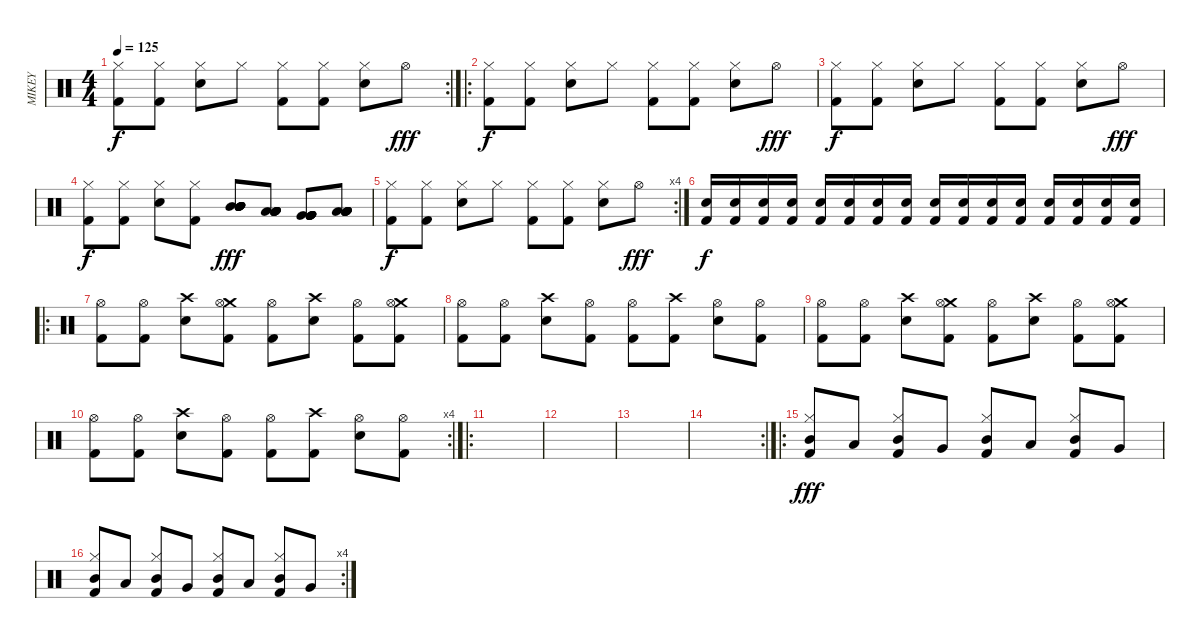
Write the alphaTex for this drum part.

\track ("MIKEY" "MIKEY") {instrument percussion}
\staff {score}
\articulation defaults
\rc 2
\ts (4 4)
\tempo 125
\clef neutral
\ks c
("Kick (hit) 2" "Hi-Hat (closed)").8{dy f} ("Kick (hit) 2" "Hi-Hat (closed)").8 ("Snare (hit) 2" "Hi-Hat (closed)").8 "Hi-Hat (closed)".8 ("Kick (hit) 2" "Hi-Hat (closed)").8 ("Kick (hit) 2" "Hi-Hat (closed)").8 ("Snare (hit) 2" "Hi-Hat (closed)").8 "Hi-Hat (open)".8{dy fff} |
\ro
("Kick (hit) 2" "Hi-Hat (closed)").8{dy f} ("Kick (hit) 2" "Hi-Hat (closed)").8 ("Snare (hit) 2" "Hi-Hat (closed)").8 "Hi-Hat (closed)".8 ("Kick (hit) 2" "Hi-Hat (closed)").8 ("Kick (hit) 2" "Hi-Hat (closed)").8 ("Snare (hit) 2" "Hi-Hat (closed)").8 "Hi-Hat (open)".8{dy fff} |
("Kick (hit) 2" "Hi-Hat (closed)").8{dy f} ("Kick (hit) 2" "Hi-Hat (closed)").8 ("Snare (hit) 2" "Hi-Hat (closed)").8 "Hi-Hat (closed)".8 ("Kick (hit) 2" "Hi-Hat (closed)").8 ("Kick (hit) 2" "Hi-Hat (closed)").8 ("Snare (hit) 2" "Hi-Hat (closed)").8 "Hi-Hat (open)".8{dy fff} |
("Kick (hit) 2" "Hi-Hat (closed)").8{dy f} ("Kick (hit) 2" "Hi-Hat (closed)").8 ("Snare (hit) 2" "Hi-Hat (closed)").8 ("Kick (hit) 2" "Hi-Hat (closed)").8 ("Mid Tom (hit)" "Mid Tom (hit)" "Mid Tom (hit)" "Mid Tom (hit)" "Mid Tom (hit)" "Mid Tom (hit)").8{dy fff} ("Low Tom (hit)" "Low Tom (hit)" "Low Tom (hit)" "Low Tom (hit)" "Low Tom (hit)" "Low Tom (hit)").8 ("Very Low Tom (hit)" "Very Low Tom (hit)" "Very Low Tom (hit)" "Very Low Tom (hit)" "Very Low Tom (hit)" "Very Low Tom (hit)").8 ("Low Floor Tom (hit)" "Low Floor Tom (hit)" "Low Floor Tom (hit)" "Low Floor Tom (hit)" "Low Floor Tom (hit)" "Low Floor Tom (hit)").8 |
\rc 4
("Kick (hit) 2" "Hi-Hat (closed)").8{dy f} ("Kick (hit) 2" "Hi-Hat (closed)").8 ("Snare (hit) 2" "Hi-Hat (closed)").8 "Hi-Hat (closed)".8 ("Kick (hit) 2" "Hi-Hat (closed)").8 ("Kick (hit) 2" "Hi-Hat (closed)").8 ("Snare (hit) 2" "Hi-Hat (closed)").8 "Hi-Hat (open)".8{dy fff} |
("Kick (hit) 2" "Electric Snare (hit)").16{dy f} ("Kick (hit) 2" "Electric Snare (hit)").16 ("Kick (hit) 2" "Electric Snare (hit)").16 ("Kick (hit) 2" "Electric Snare (hit)").16 ("Kick (hit) 2" "Electric Snare (hit)").16 ("Kick (hit) 2" "Electric Snare (hit)").16 ("Kick (hit) 2" "Electric Snare (hit)").16 ("Kick (hit) 2" "Electric Snare (hit)").16 ("Kick (hit) 2" "Electric Snare (hit)").16 ("Kick (hit) 2" "Electric Snare (hit)").16 ("Kick (hit) 2" "Electric Snare (hit)").16 ("Kick (hit) 2" "Electric Snare (hit)").16 ("Kick (hit) 2" "Electric Snare (hit)").16 ("Kick (hit) 2" "Electric Snare (hit)").16 ("Kick (hit) 2" "Electric Snare (hit)").16 ("Kick (hit) 2" "Electric Snare (hit)").16 |
\ro
("Hi-Hat (open)" "Kick (hit) 2").8 ("Hi-Hat (open)" "Kick (hit) 2").8 ("Crash high (hit)" "Electric Snare (hit)").8 ("Crash medium (hit)" "Hi-Hat (open)" "Kick (hit) 2").8 ("Hi-Hat (open)" "Kick (hit) 2").8 ("Crash high (hit)" "Electric Snare (hit)").8 ("Hi-Hat (open)" "Kick (hit) 2").8 ("Crash medium (hit)" "Hi-Hat (open)" "Kick (hit) 2").8 |
("Hi-Hat (open)" "Kick (hit) 2").8 ("Hi-Hat (open)" "Kick (hit) 2").8 ("Crash high (hit)" "Electric Snare (hit)").8 ("Hi-Hat (open)" "Kick (hit) 2").8 ("Hi-Hat (open)" "Kick (hit) 2").8 ("Crash high (hit)" "Kick (hit) 2").8 ("Hi-Hat (open)" "Electric Snare (hit)").8 ("Hi-Hat (open)" "Kick (hit) 2").8 |
("Hi-Hat (open)" "Kick (hit) 2").8 ("Hi-Hat (open)" "Kick (hit) 2").8 ("Crash high (hit)" "Electric Snare (hit)").8 ("Crash medium (hit)" "Hi-Hat (open)" "Kick (hit) 2").8 ("Hi-Hat (open)" "Kick (hit) 2").8 ("Crash high (hit)" "Electric Snare (hit)").8 ("Hi-Hat (open)" "Kick (hit) 2").8 ("Crash medium (hit)" "Hi-Hat (open)" "Kick (hit) 2").8 |
\rc 4
("Hi-Hat (open)" "Kick (hit) 2").8 ("Hi-Hat (open)" "Kick (hit) 2").8 ("Crash high (hit)" "Electric Snare (hit)").8 ("Hi-Hat (open)" "Kick (hit) 2").8 ("Hi-Hat (open)" "Kick (hit) 2").8 ("Crash high (hit)" "Kick (hit) 2").8 ("Hi-Hat (open)" "Electric Snare (hit)").8 ("Hi-Hat (open)" "Kick (hit) 2").8 |
\ro
|
|
|
\rc 2
|
\ro
("Hi-Hat (closed)" "Mid Tom (hit)" "Kick (hit) 2").8{dy fff} "Low Tom (hit)".8 ("Hi-Hat (closed)" "Mid Tom (hit)" "Kick (hit) 2").8 "Very Low Tom (hit)".8 ("Hi-Hat (closed)" "Mid Tom (hit)" "Kick (hit) 2").8 "Low Tom (hit)".8 ("Hi-Hat (closed)" "Mid Tom (hit)" "Kick (hit) 2").8 "Very Low Tom (hit)".8 |
\rc 4
("Hi-Hat (closed)" "Mid Tom (hit)" "Kick (hit) 2").8 "Low Tom (hit)".8 ("Hi-Hat (closed)" "Mid Tom (hit)" "Kick (hit) 2").8 "Very Low Tom (hit)".8 ("Hi-Hat (closed)" "Mid Tom (hit)" "Kick (hit) 2").8 "Low Tom (hit)".8 ("Hi-Hat (closed)" "Mid Tom (hit)" "Kick (hit) 2").8 "Very Low Tom (hit)".8
